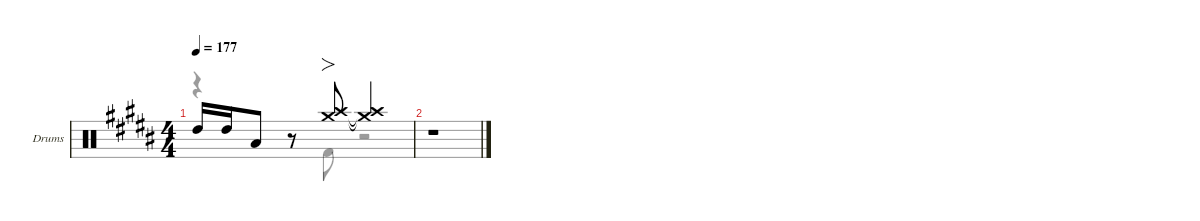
\defaultSystemsLayout 4
\hideDynamics
\bracketExtendMode nobrackets
\firstSystemTrackNameOrientation horizontal
\track ("Drums" "Drums") {defaultSystemsLayout 4 instrument percussion}
\staff {score}
\articulation defaults
\voice
\ts (4 4)
\tempo 177
\clef neutral
\scale
0.244461
\ks g#minor "High Tom (hit)"{acc forcenatural}.16{dy f beam Up} "High Tom (hit)"{acc forcenatural}.16{beam Up} "Low Tom (hit)"{acc forcenatural}.8{beam Up beam split}
r.8{beam Up beam split} ("Crash high (hit)"{acc forcenatural} "Crash medium (hit)"{acc forcenatural}).8{fo beam Up} ("Crash high (hit)"{t acc forcenatural} "Crash medium (hit)"{t acc forcenatural}).2{beam Up} |
\scale
0.244461 r.1{beam Up}
\voice
\clef neutral
\ottava regular
\simile none
\scale
0.244461
\ks g#minor
r.4{dy f beam Down} r.8{beam Down} "Kick (hit) 2"{acc forcenatural}.8{beam Down} r.2{beam Down} |
\scale
0.244461 r.1{beam Down}
